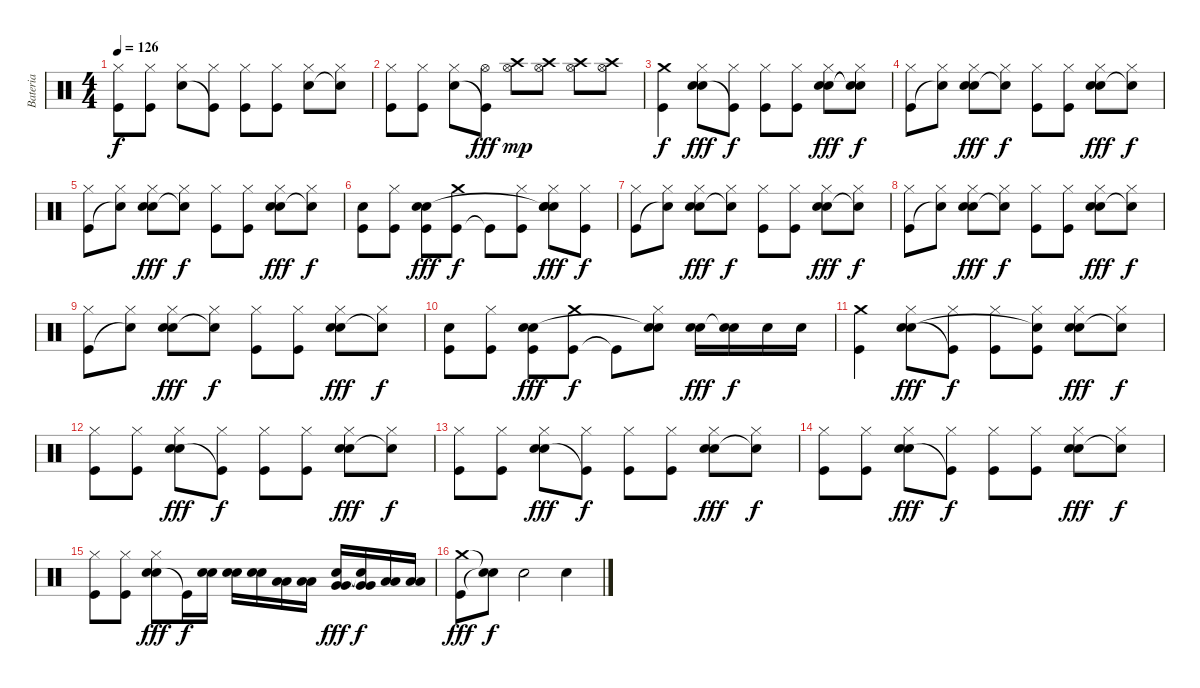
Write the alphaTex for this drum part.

\track ("Bateria" "Bateria") {instrument percussion}
\staff {score}
\articulation defaults
\ts (4 4)
\tempo 126
\clef neutral
\ks c
("Kick (hit)" "Hi-Hat (closed)").8{dy f} ("Kick (hit)" "Hi-Hat (closed)").8 ("Snare (hit) 2" "Hi-Hat (closed)").8 ("Kick (hit)"{t} "Hi-Hat (closed)").8 ("Kick (hit)" "Hi-Hat (closed)").8 ("Kick (hit)" "Hi-Hat (closed)").8 ("Snare (hit) 2" "Hi-Hat (closed)").8 ("Snare (hit)"{t} "Hi-Hat (closed)").8 |
("Kick (hit)" "Hi-Hat (closed)").8 ("Kick (hit)" "Hi-Hat (closed)").8 ("Snare (hit) 2" "Hi-Hat (closed)").8 ("Kick (hit)"{t} "Hi-Hat (open)").8{dy fff} ("Hi-Hat (open)" "Crash high (hit)").8{dy mp} ("Hi-Hat (open)" "Crash high (hit)").8 ("Hi-Hat (open)" "Crash high (hit)").8 ("Hi-Hat (open)" "Crash high (hit)").8 |
("Kick (hit)" "Crash medium (hit)").4{dy f} ("Snare (hit) 2" "Hi-Hat (closed)" "Hand Clap (hit)").8{dy fff} ("Kick (hit)"{t} "Hi-Hat (closed)").8{dy f} ("Kick (hit)" "Hi-Hat (closed)").8 ("Kick (hit)" "Hi-Hat (closed)").8 ("Snare (hit) 2" "Hi-Hat (closed)" "Hand Clap (hit)").8{dy fff} ("Snare (hit)"{t} "Hi-Hat (closed)" "Snare (hit)"{t}).8{dy f} |
("Kick (hit)" "Hi-Hat (closed)").8 ("Snare (hit)"{t} "Hi-Hat (closed)").8 ("Snare (hit) 2" "Hi-Hat (closed)" "Hand Clap (hit)").8{dy fff} ("Snare (hit)"{t} "Hi-Hat (closed)").8{dy f} ("Kick (hit)" "Hi-Hat (closed)").8 ("Kick (hit)" "Hi-Hat (closed)").8 ("Snare (hit) 2" "Hi-Hat (closed)" "Hand Clap (hit)").8{dy fff} ("Snare (hit)"{t} "Hi-Hat (closed)").8{dy f} |
("Kick (hit)" "Hi-Hat (closed)").8 ("Snare (hit)"{t} "Hi-Hat (closed)").8 ("Snare (hit) 2" "Hi-Hat (closed)" "Hand Clap (hit)").8{dy fff} ("Snare (hit)"{t} "Hi-Hat (closed)").8{dy f} ("Kick (hit)" "Hi-Hat (closed)").8 ("Kick (hit)" "Hi-Hat (closed)").8 ("Snare (hit) 2" "Hi-Hat (closed)" "Hand Clap (hit)").8{dy fff} ("Snare (hit)"{t} "Hi-Hat (closed)").8{dy f} |
("Kick (hit)" "Snare (hit) 2").8 ("Kick (hit)" "Hi-Hat (closed)").8 ("Kick (hit)" "Snare (hit) 2" "Hand Clap (hit)").8{dy fff} ("Kick (hit)" "Crash medium (hit)").8{dy f} "Kick (hit)"{t}.8 ("Kick (hit)" "Hi-Hat (closed)").8 ("Snare (hit) 2" "Hi-Hat (closed)" "Snare (hit)"{t} "Hand Clap (hit)").8{dy fff} ("Kick (hit)" "Hi-Hat (closed)").8{dy f} |
("Kick (hit)" "Hi-Hat (closed)").8 ("Snare (hit)"{t} "Hi-Hat (closed)").8 ("Snare (hit) 2" "Hi-Hat (closed)" "Hand Clap (hit)").8{dy fff} ("Snare (hit)"{t} "Hi-Hat (closed)").8{dy f} ("Kick (hit)" "Hi-Hat (closed)").8 ("Kick (hit)" "Hi-Hat (closed)").8 ("Snare (hit) 2" "Hi-Hat (closed)" "Hand Clap (hit)").8{dy fff} ("Snare (hit)"{t} "Hi-Hat (closed)").8{dy f} |
("Kick (hit)" "Hi-Hat (closed)").8 ("Snare (hit)"{t} "Hi-Hat (closed)").8 ("Snare (hit) 2" "Hi-Hat (closed)" "Hand Clap (hit)").8{dy fff} ("Snare (hit)"{t} "Hi-Hat (closed)").8{dy f} ("Kick (hit)" "Hi-Hat (closed)").8 ("Kick (hit)" "Hi-Hat (closed)").8 ("Snare (hit) 2" "Hi-Hat (closed)" "Hand Clap (hit)").8{dy fff} ("Snare (hit)"{t} "Hi-Hat (closed)").8{dy f} |
("Kick (hit)" "Hi-Hat (closed)").8 ("Snare (hit)"{t} "Hi-Hat (closed)").8 ("Snare (hit) 2" "Hi-Hat (closed)" "Hand Clap (hit)").8{dy fff} ("Snare (hit)"{t} "Hi-Hat (closed)").8{dy f} ("Kick (hit)" "Hi-Hat (closed)").8 ("Kick (hit)" "Hi-Hat (closed)").8 ("Snare (hit) 2" "Hi-Hat (closed)" "Hand Clap (hit)").8{dy fff} ("Snare (hit)"{t} "Hi-Hat (closed)").8{dy f} |
("Kick (hit)" "Snare (hit) 2").8 ("Kick (hit)" "Hi-Hat (closed)").8 ("Kick (hit)" "Snare (hit) 2" "Hand Clap (hit)").8{dy fff} ("Kick (hit)" "Crash medium (hit)").8{dy f} "Kick (hit)"{t}.8 ("Snare (hit) 2" "Hi-Hat (closed)" "Snare (hit)"{t}).8 ("Snare (hit) 2" "Hand Clap (hit)").16{dy fff} ("Snare (hit) 2" "Snare (hit)"{t}).16{dy f} "Snare (hit) 2".16 "Snare (hit) 2".16 |
("Kick (hit)" "Crash medium (hit)").4 ("Snare (hit) 2" "Hi-Hat (closed)" "Hand Clap (hit)").8{dy fff} ("Kick (hit)"{t} "Hi-Hat (closed)").8{dy f} ("Kick (hit)" "Hi-Hat (closed)").8 ("Kick (hit)" "Hi-Hat (closed)" "Snare (hit)"{t}).8 ("Snare (hit) 2" "Hi-Hat (closed)" "Hand Clap (hit)").8{dy fff} ("Snare (hit)"{t} "Hi-Hat (closed)").8{dy f} |
("Kick (hit)" "Hi-Hat (closed)").8 ("Kick (hit)" "Hi-Hat (closed)").8 ("Snare (hit) 2" "Hi-Hat (closed)" "Hand Clap (hit)").8{dy fff} ("Kick (hit)"{t} "Hi-Hat (closed)").8{dy f} ("Kick (hit)" "Hi-Hat (closed)").8 ("Kick (hit)" "Hi-Hat (closed)").8 ("Snare (hit) 2" "Hi-Hat (closed)" "Hand Clap (hit)").8{dy fff} ("Snare (hit)"{t} "Hi-Hat (closed)").8{dy f} |
("Kick (hit)" "Hi-Hat (closed)").8 ("Kick (hit)" "Hi-Hat (closed)").8 ("Snare (hit) 2" "Hi-Hat (closed)" "Hand Clap (hit)").8{dy fff} ("Kick (hit)"{t} "Hi-Hat (closed)").8{dy f} ("Kick (hit)" "Hi-Hat (closed)").8 ("Kick (hit)" "Hi-Hat (closed)").8 ("Snare (hit) 2" "Hi-Hat (closed)" "Hand Clap (hit)").8{dy fff} ("Snare (hit)"{t} "Hi-Hat (closed)").8{dy f} |
("Kick (hit)" "Hi-Hat (closed)").8 ("Kick (hit)" "Hi-Hat (closed)").8 ("Snare (hit) 2" "Hi-Hat (closed)" "Hand Clap (hit)").8{dy fff} ("Kick (hit)"{t} "Hi-Hat (closed)").8{dy f} ("Kick (hit)" "Hi-Hat (closed)").8 ("Kick (hit)" "Hi-Hat (closed)").8 ("Snare (hit) 2" "Hi-Hat (closed)" "Hand Clap (hit)").8{dy fff} ("Snare (hit)"{t} "Hi-Hat (closed)").8{dy f} |
("Kick (hit)" "Hi-Hat (closed)").8 ("Kick (hit)" "Hi-Hat (closed)").8 ("Snare (hit) 2" "Hi-Hat (closed)" "Hand Clap (hit)").8{dy fff} "Kick (hit)"{t}.16{dy f} ("Snare (hit) 2" "Snare (hit) 2").16 ("Snare (hit) 2" "Snare (hit) 2").16 ("Snare (hit) 2" "Snare (hit) 2").16 ("Low Tom (hit)" "Low Tom (hit)").16 ("Low Tom (hit)" "Low Tom (hit)").16 ("Very Low Tom (hit)" "Very Low Tom (hit)" "Hand Clap (hit)").16{dy fff} ("Very Low Tom (hit)" "Very Low Tom (hit)" "Snare (hit)"{t}).16{dy f} ("Low Floor Tom (hit)" "Low Floor Tom (hit)").16 ("Low Floor Tom (hit)" "Low Floor Tom (hit)").16 |
("Kick (hit)" "Crash medium (hit)").8{dy fff} ("Snare (hit)"{t} "Snare (hit)"{t}).8{dy f} "Hand Clap (hit)".2 "Hand Clap (hit)".4
